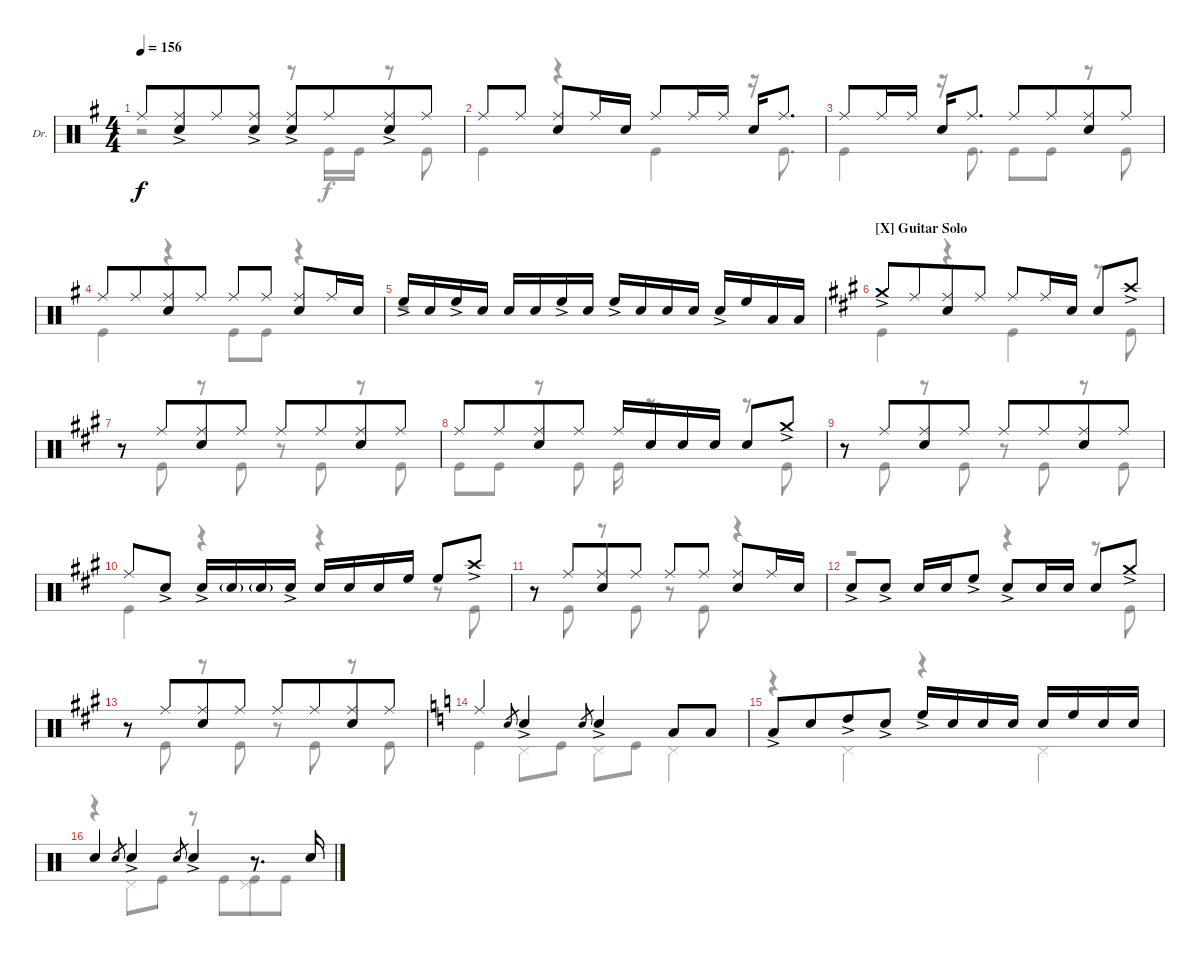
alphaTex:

\defaultSystemsLayout 4
\bracketExtendMode groupsimilarinstruments
\firstSystemTrackNameOrientation horizontal
\otherSystemsTrackNameOrientation horizontal
\track ("Drums" "Dr.") {instrument percussion}
\staff {score}
\articulation defaults
\voice
\ts (4 4)
\tempo 156
\clef neutral
\scale
0.307326
\ks g "Ride (middle)".8{dy f}
("Ride (middle)"{ac} "Snare (hit) 2"{ac}).8{beam merge} "Ride (middle)".8 ("Ride (middle)"{ac} "Snare (hit) 2"{ac}).8 ("Ride (middle)"{ac} "Snare (hit) 2"{ac}).8 "Ride (middle)".8{beam merge} ("Ride (middle)"{ac} "Snare (hit) 2"{ac}).8 "Ride (middle)".8 |
\scale
0.353101 "Ride (middle)".8 "Ride (middle)".8 ("Ride (middle)" "Snare (hit) 2").8 "Ride (middle)".16 "Snare (hit) 2".16 "Ride (middle)".8 "Ride (middle)".16 "Ride (middle)".16 "Snare (hit) 2".16 "Ride (middle)".8{d} |
"Ride (middle)".8 "Ride (middle)".16 "Ride (middle)".16 "Snare (hit) 2".16 "Ride (middle)".8{d} "Ride (middle)".8 "Ride (middle)".8{beam merge} ("Ride (middle)" "Snare (hit) 2").8 "Ride (middle)".8 |
"Ride (middle)".8 "Ride (middle)".8{beam merge} ("Ride (middle)" "Snare (hit) 2").8 "Ride (middle)".8 "Ride (middle)".8 "Ride (middle)".8 ("Ride (middle)" "Snare (hit) 2").8 "Ride (middle)".16 "Snare (hit) 2".16 |
"High Floor Tom (hit)"{ac}.16 "Snare (hit) 2".16 "High Floor Tom (hit)"{ac}.16 "Snare (hit) 2".16 "Snare (hit) 2".16 "Snare (hit) 2".16 "High Floor Tom (hit)"{ac}.16 "Snare (hit) 2".16 "High Floor Tom (hit)"{ac}.16 "Snare (hit) 2".16 "Snare (hit) 2".16 "Snare (hit) 2".16 "Snare (hit) 2"{ac}.16 "High Floor Tom (hit)".16 "Low Tom (hit)".16 "Low Tom (hit)".16 |
\section ("X" "Guitar Solo")
\scale
0.370574
\ks a "Crash medium (hit)"{ac}.8 "Ride (middle)".8{beam merge}
("Ride (middle)" "Snare (hit) 2").8 "Ride (middle)".8 "Ride (middle)".8 "Ride (middle)".16 "Snare (hit) 2".16 "Snare (hit) 2".8 "Crash high (hit)"{ac}.8 |
\scale
0.273704 r.8 "Ride (middle)".8{beam merge} ("Ride (middle)" "Snare (hit) 2").8{beam merge} "Ride (middle)".8 "Ride (middle)".8 "Ride (middle)".8{beam merge} ("Ride (middle)" "Snare (hit) 2").8 "Ride (middle)".8 |
\scale
0.355795 "Ride (middle)".8 "Ride (middle)".8{beam merge} ("Ride (middle)" "Snare (hit) 2").8 "Ride (middle)".8 "Ride (middle)".16 "Snare (hit) 2".16 "Snare (hit) 2".16 "Snare (hit) 2".16 "Snare (hit) 2".8 "Crash medium (hit)"{ac}.8 |
\scale
0.371915 r.8 "Ride (middle)".8{beam merge} ("Ride (middle)" "Snare (hit) 2").8{beam merge} "Ride (middle)".8 "Ride (middle)".8 "Ride (middle)".8{beam merge} ("Ride (middle)" "Snare (hit) 2").8 "Ride (middle)".8 |
\scale
0.341363 "Ride (middle)".8 "Snare (hit) 2"{ac}.8 "Snare (hit) 2"{ac}.16 "Snare (hit) 2"{g}.16 "Snare (hit) 2"{g}.16 "Snare (hit) 2"{ac}.16 "Snare (hit) 2".16 "Snare (hit) 2".16 "Snare (hit) 2".16 "High Floor Tom (hit)".16 "High Floor Tom (hit)".8 "Crash high (hit)"{ac}.8 |
\scale
0.287062 r.8 "Ride (middle)".8{beam merge} ("Ride (middle)" "Snare (hit) 2").8 "Ride (middle)".8 "Ride (middle)".8 "Ride (middle)".8 ("Ride (middle)" "Snare (hit) 2").8 "Ride (middle)".16 "Snare (hit) 2".16 |
"Snare (hit) 2"{ac}.8 "Snare (hit) 2"{ac}.8 "Snare (hit) 2".16 "Snare (hit) 2".16 "High Floor Tom (hit)"{ac}.8 "Snare (hit) 2"{ac}.8 "Snare (hit) 2".16 "Snare (hit) 2".16 "Snare (hit) 2".8 "Crash medium (hit)"{ac}.8 |
r.8 "Ride (middle)".8{beam merge} ("Ride (middle)" "Snare (hit) 2").8{beam merge} "Ride (middle)".8 "Ride (middle)".8 "Ride (middle)".8{beam merge} ("Ride (middle)" "Snare (hit) 2").8 "Ride (middle)".8 |
\ks c "Ride (middle)".4 "Snare (hit) 2".8{gr} "Snare (hit) 2"{ac}.4 "Snare (hit) 2".8{gr} "Snare (hit) 2"{ac}.4 "Low Tom (hit)".8 "Low Tom (hit)".8
|
"Low Tom (hit)"{ac}.8 "Snare (hit) 2".8{beam merge} "High Tom (hit)"{ac}.8 "Snare (hit) 2"{ac}.8 "High Floor Tom (hit)"{ac}.16 "Snare (hit) 2".16 "Snare (hit) 2".16 "Snare (hit) 2".16 "Snare (hit) 2".16 "High Floor Tom (hit)".16 "Snare (hit) 2".16 "Snare (hit) 2".16 |
"Snare (hit) 2".4 "Snare (hit) 2".8{gr} "Snare (hit) 2"{ac}.4 "Snare (hit) 2".8{gr} "Snare (hit) 2"{ac}.4 r.8{d} "Snare (hit) 2".16
\voice
\clef neutral
\ottava regular
\simile none
\scale
0.307326
\ks g
r.2{dy f} r.8 "Kick (hit)".16 "Kick (hit)".16 r.8 "Kick (hit)".8 |
\scale
0.353101 "Kick (hit)".4 r.4 "Kick (hit)".4 r.16 "Kick (hit)".8{d} |
"Kick (hit)".4 r.16 "Kick (hit)".8{d} "Kick (hit)".8 "Kick (hit)".8 r.8 "Kick (hit)".8 |
"Kick (hit)".4 r.4 "Kick (hit)".8 "Kick (hit)".8 r.4 |
r.1 |
\scale
0.370574
\ks a "Kick (hit)".4
r.4 "Kick (hit)".4 r.8 "Kick (hit)".8 |
\scale
0.273704 r.8 "Kick (hit)".8 r.8 "Kick (hit)".8 r.8 "Kick (hit)".8 r.8 "Kick (hit)".8 |
\scale
0.355795 "Kick (hit)".8 "Kick (hit)".8 r.8 "Kick (hit)".8 "Kick (hit)".16 r.8{d} r.8 "Kick (hit)".8 |
\scale
0.371915 r.8 "Kick (hit)".8 r.8 "Kick (hit)".8 r.8 "Kick (hit)".8 r.8 "Kick (hit)".8 |
\scale
0.341363 "Kick (hit)".4 r.4 r.4 r.8 "Kick (hit)".8 |
\scale
0.287062 r.8 "Kick (hit)".8 r.8 "Kick (hit)".8 r.8 "Kick (hit)".8 r.4 |
r.2 r.4 r.8 "Kick (hit)".8 |
r.8 "Kick (hit)".8 r.8 "Kick (hit)".8 r.8 "Kick (hit)".8 r.8 "Kick (hit)".8 |
\ks c "Kick (hit)".4 "Pedal Hi-Hat (hit)".8 "Kick (hit)".8 "Pedal Hi-Hat (hit)".8 "Kick (hit)".8 "Pedal Hi-Hat (hit)".4
|
r.4 "Pedal Hi-Hat (hit)".4 r.4 "Pedal Hi-Hat (hit)".4 |
r.4 "Pedal Hi-Hat (hit)".8 "Kick (hit)".8 r.8 "Kick (hit)".8{beam merge} ("Kick (hit)" "Pedal Hi-Hat (hit)").8 "Kick (hit)".8
